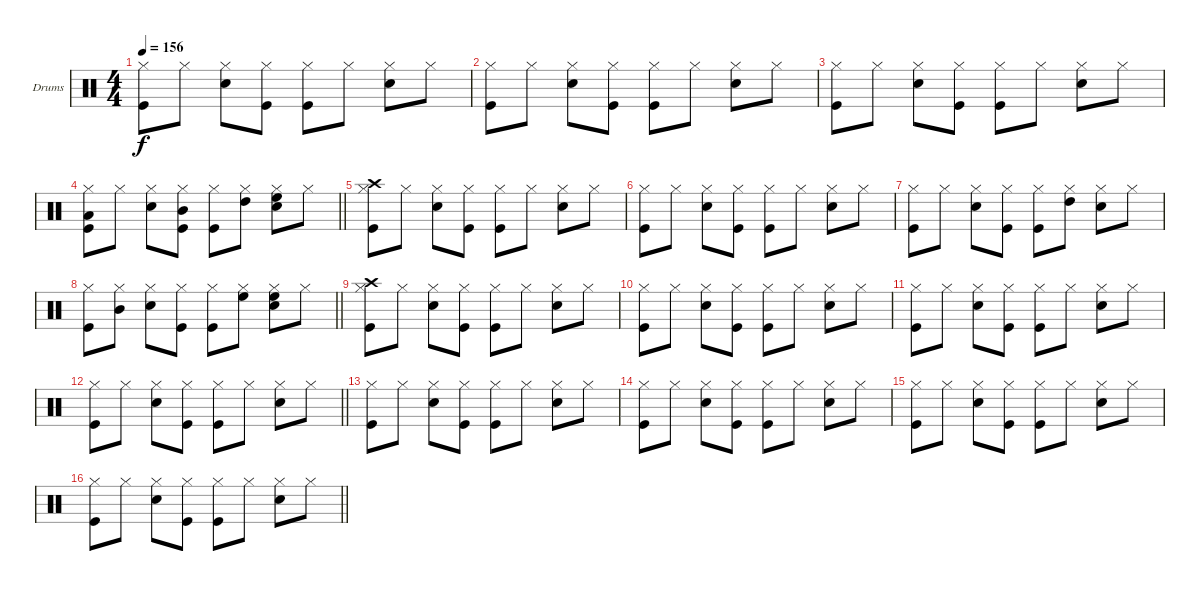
\bracketExtendMode groupsimilarinstruments
\firstSystemTrackNameOrientation horizontal
\otherSystemsTrackNameOrientation horizontal
\track ("Drumkit" "Drums") {instrument percussion}
\staff {score}
\articulation defaults
\ts (4 4)
\tempo 156
\clef neutral
\ks c
("Hi-Hat (closed)" "Kick (hit)").8{dy f} "Hi-Hat (closed)".8 ("Hi-Hat (closed)" "Snare (hit) 2").8 ("Hi-Hat (closed)" "Kick (hit)").8 ("Hi-Hat (closed)" "Kick (hit)").8 "Hi-Hat (closed)".8 ("Hi-Hat (closed)" "Snare (hit) 2").8 "Hi-Hat (closed)".8 |
("Hi-Hat (closed)" "Kick (hit)").8 "Hi-Hat (closed)".8 ("Hi-Hat (closed)" "Snare (hit) 2").8 ("Hi-Hat (closed)" "Kick (hit)").8 ("Hi-Hat (closed)" "Kick (hit)").8 "Hi-Hat (closed)".8 ("Hi-Hat (closed)" "Snare (hit) 2").8 "Hi-Hat (closed)".8 |
("Hi-Hat (closed)" "Kick (hit)").8 "Hi-Hat (closed)".8 ("Hi-Hat (closed)" "Snare (hit) 2").8 ("Hi-Hat (closed)" "Kick (hit)").8 ("Hi-Hat (closed)" "Kick (hit)").8 "Hi-Hat (closed)".8 ("Hi-Hat (closed)" "Snare (hit) 2").8 "Hi-Hat (closed)".8 |
\barLineRight lightlight
("Hi-Hat (closed)" "Kick (hit)" "Low Tom (hit)").8 "Hi-Hat (closed)".8 ("Hi-Hat (closed)" "Snare (hit) 2").8 ("Hi-Hat (closed)" "Kick (hit)" "Mid Tom (hit)").8 ("Hi-Hat (closed)" "Kick (hit)").8 ("Hi-Hat (closed)" "High Tom (hit)").8 ("Hi-Hat (closed)" "Snare (hit) 2" "High Floor Tom (hit)").8 "Hi-Hat (closed)".8 |
("Hi-Hat (closed)" "Kick (hit)" "Crash high (hit)").8 "Hi-Hat (closed)".8 ("Hi-Hat (closed)" "Snare (hit) 2").8 ("Hi-Hat (closed)" "Kick (hit)").8 ("Hi-Hat (closed)" "Kick (hit)").8 "Hi-Hat (closed)".8 ("Hi-Hat (closed)" "Snare (hit) 2").8 "Hi-Hat (closed)".8 |
("Hi-Hat (closed)" "Kick (hit)").8 "Hi-Hat (closed)".8 ("Hi-Hat (closed)" "Snare (hit) 2").8 ("Hi-Hat (closed)" "Kick (hit)").8 ("Hi-Hat (closed)" "Kick (hit)").8 "Hi-Hat (closed)".8 ("Hi-Hat (closed)" "Snare (hit) 2").8 "Hi-Hat (closed)".8 |
("Hi-Hat (closed)" "Kick (hit)").8 "Hi-Hat (closed)".8 ("Hi-Hat (closed)" "Snare (hit) 2").8 ("Hi-Hat (closed)" "Kick (hit)").8 ("Hi-Hat (closed)" "Kick (hit)").8 ("Hi-Hat (closed)" "High Tom (hit)").8 ("Hi-Hat (closed)" "Snare (hit) 2").8 "Hi-Hat (closed)".8 |
\barLineRight lightlight
("Hi-Hat (closed)" "Kick (hit)").8 ("Hi-Hat (closed)" "Mid Tom (hit)").8 ("Hi-Hat (closed)" "Snare (hit) 2").8 ("Hi-Hat (closed)" "Kick (hit)").8 ("Hi-Hat (closed)" "Kick (hit)").8 ("Hi-Hat (closed)" "High Floor Tom (hit)").8 ("Hi-Hat (closed)" "Snare (hit) 2" "High Floor Tom (hit)").8 "Hi-Hat (closed)".8 |
("Hi-Hat (closed)" "Kick (hit)" "Crash high (hit)").8 "Hi-Hat (closed)".8 ("Hi-Hat (closed)" "Snare (hit) 2").8 ("Hi-Hat (closed)" "Kick (hit)").8 ("Hi-Hat (closed)" "Kick (hit)").8 "Hi-Hat (closed)".8 ("Hi-Hat (closed)" "Snare (hit) 2").8 "Hi-Hat (closed)".8 |
("Hi-Hat (closed)" "Kick (hit)").8 "Hi-Hat (closed)".8 ("Hi-Hat (closed)" "Snare (hit) 2").8 ("Hi-Hat (closed)" "Kick (hit)").8 ("Hi-Hat (closed)" "Kick (hit)").8 "Hi-Hat (closed)".8 ("Hi-Hat (closed)" "Snare (hit) 2").8 "Hi-Hat (closed)".8 |
("Hi-Hat (closed)" "Kick (hit)").8 "Hi-Hat (closed)".8 ("Hi-Hat (closed)" "Snare (hit) 2").8 ("Hi-Hat (closed)" "Kick (hit)").8 ("Hi-Hat (closed)" "Kick (hit)").8 "Hi-Hat (closed)".8 ("Hi-Hat (closed)" "Snare (hit) 2").8 "Hi-Hat (closed)".8 |
\barLineRight lightlight
("Hi-Hat (closed)" "Kick (hit)").8 "Hi-Hat (closed)".8 ("Hi-Hat (closed)" "Snare (hit) 2").8 ("Hi-Hat (closed)" "Kick (hit)").8 ("Hi-Hat (closed)" "Kick (hit)").8 "Hi-Hat (closed)".8 ("Hi-Hat (closed)" "Snare (hit) 2").8 "Hi-Hat (closed)".8 |
("Hi-Hat (closed)" "Kick (hit)").8 "Hi-Hat (closed)".8 ("Hi-Hat (closed)" "Snare (hit) 2").8 ("Hi-Hat (closed)" "Kick (hit)").8 ("Hi-Hat (closed)" "Kick (hit)").8 "Hi-Hat (closed)".8 ("Hi-Hat (closed)" "Snare (hit) 2").8 "Hi-Hat (closed)".8 |
("Hi-Hat (closed)" "Kick (hit)").8 "Hi-Hat (closed)".8 ("Hi-Hat (closed)" "Snare (hit) 2").8 ("Hi-Hat (closed)" "Kick (hit)").8 ("Hi-Hat (closed)" "Kick (hit)").8 "Hi-Hat (closed)".8 ("Hi-Hat (closed)" "Snare (hit) 2").8 "Hi-Hat (closed)".8 |
("Hi-Hat (closed)" "Kick (hit)").8 "Hi-Hat (closed)".8 ("Hi-Hat (closed)" "Snare (hit) 2").8 ("Hi-Hat (closed)" "Kick (hit)").8 ("Hi-Hat (closed)" "Kick (hit)").8 "Hi-Hat (closed)".8 ("Hi-Hat (closed)" "Snare (hit) 2").8 "Hi-Hat (closed)".8 |
\barLineRight lightlight
("Hi-Hat (closed)" "Kick (hit)").8 "Hi-Hat (closed)".8 ("Hi-Hat (closed)" "Snare (hit) 2").8 ("Hi-Hat (closed)" "Kick (hit)").8 ("Hi-Hat (closed)" "Kick (hit)").8 "Hi-Hat (closed)".8 ("Hi-Hat (closed)" "Snare (hit) 2").8 "Hi-Hat (closed)".8
